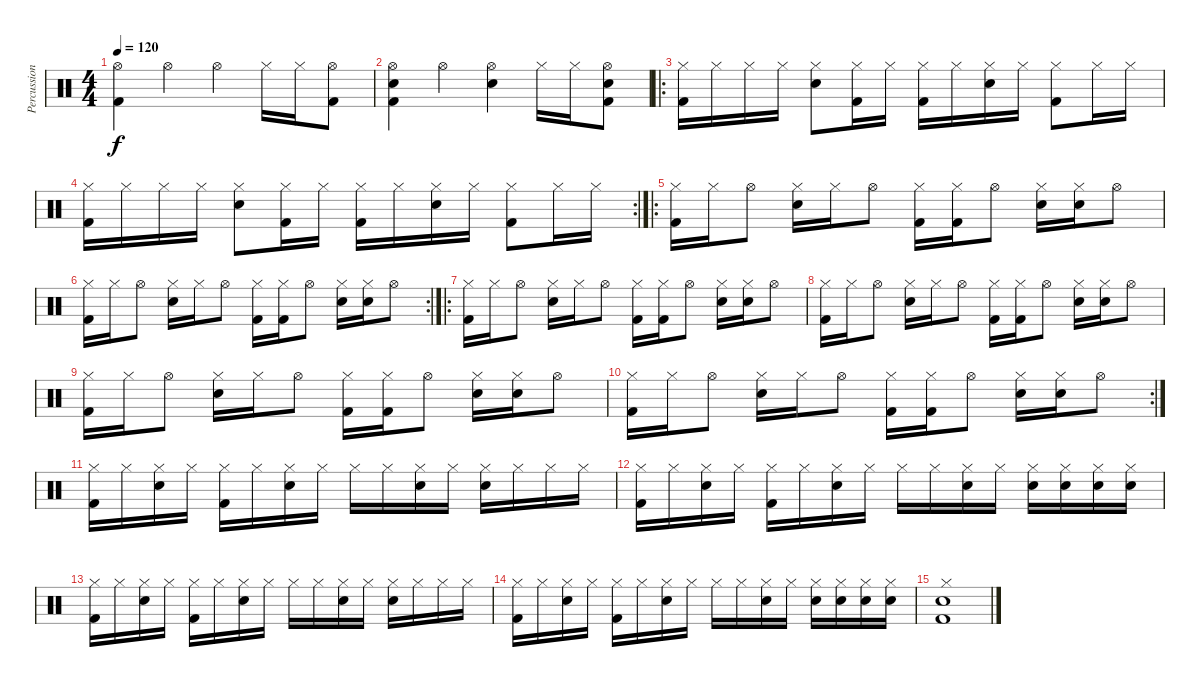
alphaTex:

\track ("Percussion" "Percussion") {instrument percussion}
\staff {score}
\articulation defaults
\ts (4 4)
\tempo 120
\clef neutral
\ks c
("Hi-Hat (open)" "Kick (hit) 2").4{dy f} "Hi-Hat (open)".4 "Hi-Hat (open)".4 "Hi-Hat (closed)".16 "Hi-Hat (closed)".16 ("Hi-Hat (open)" "Kick (hit) 2").8 |
("Hi-Hat (open)" "Snare (hit) 2" "Kick (hit) 2").4 "Hi-Hat (open)".4 ("Hi-Hat (open)" "Snare (hit) 2").4 "Hi-Hat (closed)".16 "Hi-Hat (closed)".16 ("Hi-Hat (open)" "Snare (hit) 2" "Kick (hit) 2").8 |
\ro
("Hi-Hat (closed)" "Kick (hit) 2").16 "Hi-Hat (closed)".16 "Hi-Hat (closed)".16 "Hi-Hat (closed)".16 ("Hi-Hat (closed)" "Snare (hit) 2").8 ("Hi-Hat (closed)" "Kick (hit) 2").16 "Hi-Hat (closed)".16 ("Hi-Hat (closed)" "Kick (hit) 2").16 "Hi-Hat (closed)".16 ("Hi-Hat (closed)" "Snare (hit) 2").16 "Hi-Hat (closed)".16 ("Hi-Hat (closed)" "Kick (hit) 2").8 "Hi-Hat (closed)".16 "Hi-Hat (closed)".16 |
\rc 2
("Hi-Hat (closed)" "Kick (hit) 2").16 "Hi-Hat (closed)".16 "Hi-Hat (closed)".16 "Hi-Hat (closed)".16 ("Hi-Hat (closed)" "Snare (hit) 2").8 ("Hi-Hat (closed)" "Kick (hit) 2").16 "Hi-Hat (closed)".16 ("Hi-Hat (closed)" "Kick (hit) 2").16 "Hi-Hat (closed)".16 ("Hi-Hat (closed)" "Snare (hit) 2").16 "Hi-Hat (closed)".16 ("Hi-Hat (closed)" "Kick (hit) 2").8 "Hi-Hat (closed)".16 "Hi-Hat (closed)".16 |
\ro
("Hi-Hat (closed)" "Kick (hit) 2").16 "Hi-Hat (closed)".16 "Hi-Hat (open)".8 ("Hi-Hat (closed)" "Snare (hit) 2").16 "Hi-Hat (closed)".16 "Hi-Hat (open)".8 ("Hi-Hat (closed)" "Kick (hit) 2").16 ("Hi-Hat (closed)" "Kick (hit) 2").16 "Hi-Hat (open)".8 ("Hi-Hat (closed)" "Snare (hit) 2").16 ("Hi-Hat (closed)" "Snare (hit) 2").16 "Hi-Hat (open)".8 |
\rc 2
("Hi-Hat (closed)" "Kick (hit) 2").16 "Hi-Hat (closed)".16 "Hi-Hat (open)".8 ("Hi-Hat (closed)" "Snare (hit) 2").16 "Hi-Hat (closed)".16 "Hi-Hat (open)".8 ("Hi-Hat (closed)" "Kick (hit) 2").16 ("Hi-Hat (closed)" "Kick (hit) 2").16 "Hi-Hat (open)".8 ("Hi-Hat (closed)" "Snare (hit) 2").16 ("Hi-Hat (closed)" "Snare (hit) 2").16 "Hi-Hat (open)".8 |
\ro
("Hi-Hat (closed)" "Kick (hit) 2").16 "Hi-Hat (closed)".16 "Hi-Hat (open)".8 ("Hi-Hat (closed)" "Snare (hit) 2").16 "Hi-Hat (closed)".16 "Hi-Hat (open)".8 ("Hi-Hat (closed)" "Kick (hit) 2").16 ("Hi-Hat (closed)" "Kick (hit) 2").16 "Hi-Hat (open)".8 ("Hi-Hat (closed)" "Snare (hit) 2").16 ("Hi-Hat (closed)" "Snare (hit) 2").16 "Hi-Hat (open)".8 |
("Hi-Hat (closed)" "Kick (hit) 2").16 "Hi-Hat (closed)".16 "Hi-Hat (open)".8 ("Hi-Hat (closed)" "Snare (hit) 2").16 "Hi-Hat (closed)".16 "Hi-Hat (open)".8 ("Hi-Hat (closed)" "Kick (hit) 2").16 ("Hi-Hat (closed)" "Kick (hit) 2").16 "Hi-Hat (open)".8 ("Hi-Hat (closed)" "Snare (hit) 2").16 ("Hi-Hat (closed)" "Snare (hit) 2").16 "Hi-Hat (open)".8 |
("Hi-Hat (closed)" "Kick (hit) 2").16 "Hi-Hat (closed)".16 "Hi-Hat (open)".8 ("Hi-Hat (closed)" "Snare (hit) 2").16 "Hi-Hat (closed)".16 "Hi-Hat (open)".8 ("Hi-Hat (closed)" "Kick (hit) 2").16 ("Hi-Hat (closed)" "Kick (hit) 2").16 "Hi-Hat (open)".8 ("Hi-Hat (closed)" "Snare (hit) 2").16 ("Hi-Hat (closed)" "Snare (hit) 2").16 "Hi-Hat (open)".8 |
\rc 2
("Hi-Hat (closed)" "Kick (hit) 2").16 "Hi-Hat (closed)".16 "Hi-Hat (open)".8 ("Hi-Hat (closed)" "Snare (hit) 2").16 "Hi-Hat (closed)".16 "Hi-Hat (open)".8 ("Hi-Hat (closed)" "Kick (hit) 2").16 ("Hi-Hat (closed)" "Kick (hit) 2").16 "Hi-Hat (open)".8 ("Hi-Hat (closed)" "Snare (hit) 2").16 ("Hi-Hat (closed)" "Snare (hit) 2").16 "Hi-Hat (open)".8 |
("Hi-Hat (closed)" "Kick (hit) 2").16 "Hi-Hat (closed)".16 ("Hi-Hat (closed)" "Snare (hit) 2").16 "Hi-Hat (closed)".16 ("Hi-Hat (closed)" "Kick (hit) 2").16 "Hi-Hat (closed)".16 ("Hi-Hat (closed)" "Snare (hit) 2").16 "Hi-Hat (closed)".16 "Hi-Hat (closed)".16 "Hi-Hat (closed)".16 ("Hi-Hat (closed)" "Snare (hit) 2").16 "Hi-Hat (closed)".16 ("Hi-Hat (closed)" "Snare (hit) 2").16 "Hi-Hat (closed)".16 "Hi-Hat (closed)".16 "Hi-Hat (closed)".16 |
("Hi-Hat (closed)" "Kick (hit) 2").16 "Hi-Hat (closed)".16 ("Hi-Hat (closed)" "Snare (hit) 2").16 "Hi-Hat (closed)".16 ("Hi-Hat (closed)" "Kick (hit) 2").16 "Hi-Hat (closed)".16 ("Hi-Hat (closed)" "Snare (hit) 2").16 "Hi-Hat (closed)".16 "Hi-Hat (closed)".16 "Hi-Hat (closed)".16 ("Hi-Hat (closed)" "Snare (hit) 2").16 "Hi-Hat (closed)".16 ("Hi-Hat (closed)" "Snare (hit) 2").16 ("Hi-Hat (closed)" "Snare (hit) 2").16 ("Hi-Hat (closed)" "Snare (hit) 2").16 ("Hi-Hat (closed)" "Snare (hit) 2").16 |
("Hi-Hat (closed)" "Kick (hit) 2").16 "Hi-Hat (closed)".16 ("Hi-Hat (closed)" "Snare (hit) 2").16 "Hi-Hat (closed)".16 ("Hi-Hat (closed)" "Kick (hit) 2").16 "Hi-Hat (closed)".16 ("Hi-Hat (closed)" "Snare (hit) 2").16 "Hi-Hat (closed)".16 "Hi-Hat (closed)".16 "Hi-Hat (closed)".16 ("Hi-Hat (closed)" "Snare (hit) 2").16 "Hi-Hat (closed)".16 ("Hi-Hat (closed)" "Snare (hit) 2").16 "Hi-Hat (closed)".16 "Hi-Hat (closed)".16 "Hi-Hat (closed)".16 |
("Hi-Hat (closed)" "Kick (hit) 2").16 "Hi-Hat (closed)".16 ("Hi-Hat (closed)" "Snare (hit) 2").16 "Hi-Hat (closed)".16 ("Hi-Hat (closed)" "Kick (hit) 2").16 "Hi-Hat (closed)".16 ("Hi-Hat (closed)" "Snare (hit) 2").16 "Hi-Hat (closed)".16 "Hi-Hat (closed)".16 "Hi-Hat (closed)".16 ("Hi-Hat (closed)" "Snare (hit) 2").16 "Hi-Hat (closed)".16 ("Hi-Hat (closed)" "Snare (hit) 2").16 ("Hi-Hat (closed)" "Snare (hit) 2").16 ("Hi-Hat (closed)" "Snare (hit) 2").16 ("Hi-Hat (closed)" "Snare (hit) 2").16 |
("Hi-Hat (closed)" "Snare (hit) 2" "Kick (hit) 2").1
